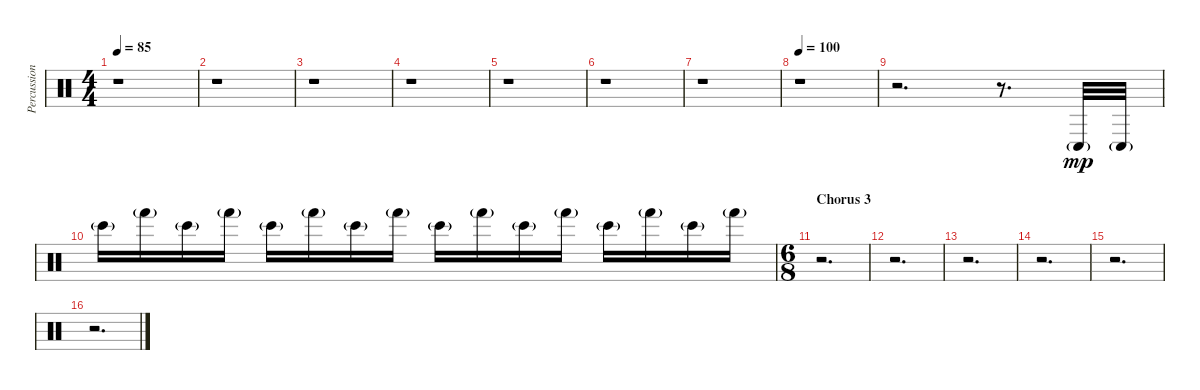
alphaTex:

\track ("Percussion" "Percussion") {instrument percussion}
\staff {score}
\articulation defaults
\ts (4 4)
\tempo 85
\clef neutral
\ks c
r.1{dy f} |
r.1 |
r.1 |
r.1 |
r.1 |
r.1 |
r.1 |
\tempo 100
r.1 |
r.2{d} r.8{d} "Conga low (hit)"{g}.32{dy mp} "Conga low (hit)"{g}.32 |
"Bongo High (hit)"{g}.16 "Hand (hit)"{g}.16 "Bongo High (hit)"{g}.16 "Hand (hit)"{g}.16 "Bongo High (hit)"{g}.16 "Hand (hit)"{g}.16 "Bongo High (hit)"{g}.16 "Hand (hit)"{g}.16 "Bongo High (hit)"{g}.16 "Hand (hit)"{g}.16 "Bongo High (hit)"{g}.16 "Hand (hit)"{g}.16 "Bongo High (hit)"{g}.16 "Hand (hit)"{g}.16 "Bongo High (hit)"{g}.16 "Hand (hit)"{g}.16 |
\ts (6 8)
\section ("" "Chorus 3")
r.2{d} |
r.2{d} |
r.2{d} |
r.2{d} |
r.2{d} |
r.2{d}
